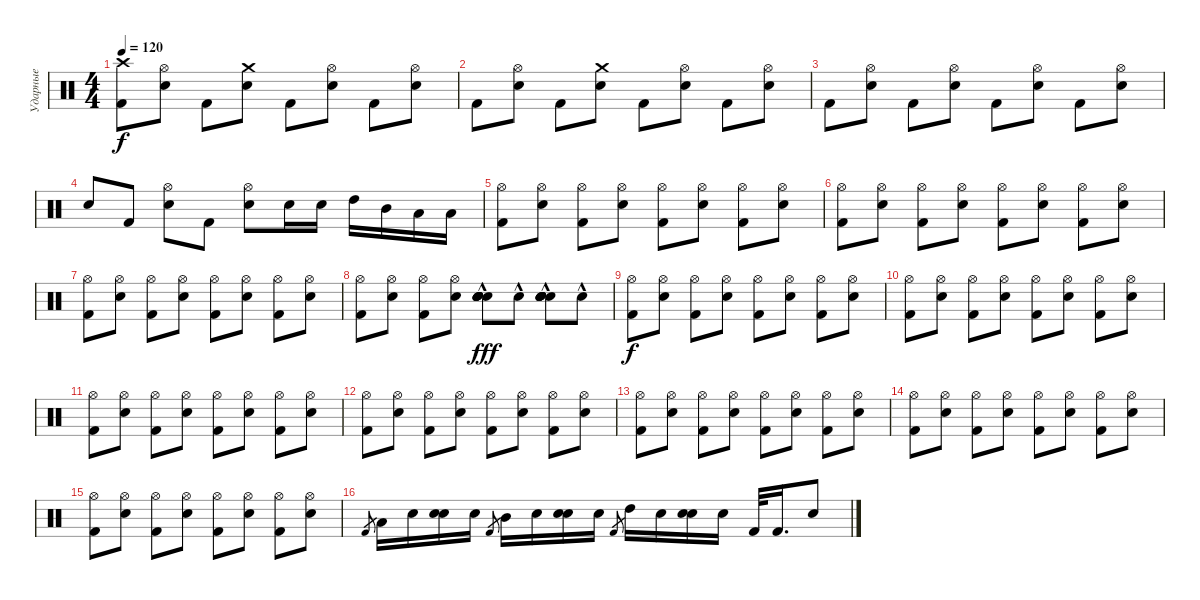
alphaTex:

\track ("Ударные" "Ударные") {instrument percussion}
\staff {score}
\articulation defaults
\ts (4 4)
\tempo 120
\clef neutral
\ks c
("Crash high (hit)" "Kick (hit) 2").8{dy f} ("Hi-Hat (open)" "Snare (hit) 2").8 "Kick (hit) 2".8 ("Crash medium (hit)" "Snare (hit) 2").8 "Kick (hit) 2".8 ("Hi-Hat (open)" "Snare (hit) 2").8 "Kick (hit) 2".8 ("Hi-Hat (open)" "Snare (hit) 2").8 |
"Kick (hit) 2".8 ("Hi-Hat (open)" "Snare (hit) 2").8 "Kick (hit) 2".8 ("Crash medium (hit)" "Snare (hit) 2").8 "Kick (hit) 2".8 ("Hi-Hat (open)" "Snare (hit) 2").8 "Kick (hit) 2".8 ("Hi-Hat (open)" "Snare (hit) 2").8 |
"Kick (hit) 2".8 ("Hi-Hat (open)" "Snare (hit) 2").8 "Kick (hit) 2".8 ("Hi-Hat (open)" "Snare (hit) 2").8 "Kick (hit) 2".8 ("Hi-Hat (open)" "Snare (hit) 2").8 "Kick (hit) 2".8 ("Hi-Hat (open)" "Snare (hit) 2").8 |
"Snare (hit) 2".8 "Kick (hit) 2".8 ("Hi-Hat (open)" "Snare (hit) 2").8 "Kick (hit) 2".8 ("Hi-Hat (open)" "Snare (hit) 2").8 "Snare (hit) 2".16 "Snare (hit) 2".16 "High Tom (hit)".16 "Mid Tom (hit)".16 "Low Tom (hit)".16 "Low Tom (hit)".16 |
("Hi-Hat (open)" "Kick (hit) 2").8 ("Hi-Hat (open)" "Snare (hit) 2").8 ("Hi-Hat (open)" "Kick (hit) 2").8 ("Hi-Hat (open)" "Snare (hit) 2").8 ("Hi-Hat (open)" "Kick (hit) 2").8 ("Hi-Hat (open)" "Snare (hit) 2").8 ("Hi-Hat (open)" "Kick (hit) 2").8 ("Hi-Hat (open)" "Snare (hit) 2").8 |
("Hi-Hat (open)" "Kick (hit) 2").8 ("Hi-Hat (open)" "Snare (hit) 2").8 ("Hi-Hat (open)" "Kick (hit) 2").8 ("Hi-Hat (open)" "Snare (hit) 2").8 ("Hi-Hat (open)" "Kick (hit) 2").8 ("Hi-Hat (open)" "Snare (hit) 2").8 ("Hi-Hat (open)" "Kick (hit) 2").8 ("Hi-Hat (open)" "Snare (hit) 2").8 |
("Hi-Hat (open)" "Kick (hit) 2").8 ("Hi-Hat (open)" "Snare (hit) 2").8 ("Hi-Hat (open)" "Kick (hit) 2").8 ("Hi-Hat (open)" "Snare (hit) 2").8 ("Hi-Hat (open)" "Kick (hit) 2").8 ("Hi-Hat (open)" "Snare (hit) 2").8 ("Hi-Hat (open)" "Kick (hit) 2").8 ("Hi-Hat (open)" "Snare (hit) 2").8 |
("Hi-Hat (open)" "Kick (hit) 2").8 ("Hi-Hat (open)" "Snare (hit) 2").8 ("Hi-Hat (open)" "Kick (hit) 2").8 ("Hi-Hat (open)" "Snare (hit) 2").8 ("Snare (hit) 2"{hac} "Snare (hit) 2"{hac} "Snare (hit) 2"{hac} "Snare (hit) 2"{hac} "Snare (hit) 2"{hac} "Snare (hit) 2"{hac}).8{dy fff} "Snare (hit)"{hac}.8 ("Snare (hit) 2"{hac} "Snare (hit) 2"{hac} "Snare (hit) 2"{hac} "Snare (hit) 2"{hac} "Snare (hit) 2"{hac} "Snare (hit) 2"{hac}).8 "Snare (hit)"{hac}.8 |
("Hi-Hat (open)" "Kick (hit) 2").8{dy f} ("Hi-Hat (open)" "Snare (hit) 2").8 ("Hi-Hat (open)" "Kick (hit) 2").8 ("Hi-Hat (open)" "Snare (hit) 2").8 ("Hi-Hat (open)" "Kick (hit) 2").8 ("Hi-Hat (open)" "Snare (hit) 2").8 ("Hi-Hat (open)" "Kick (hit) 2").8 ("Hi-Hat (open)" "Snare (hit) 2").8 |
("Hi-Hat (open)" "Kick (hit) 2").8 ("Hi-Hat (open)" "Snare (hit) 2").8 ("Hi-Hat (open)" "Kick (hit) 2").8 ("Hi-Hat (open)" "Snare (hit) 2").8 ("Hi-Hat (open)" "Kick (hit) 2").8 ("Hi-Hat (open)" "Snare (hit) 2").8 ("Hi-Hat (open)" "Kick (hit) 2").8 ("Hi-Hat (open)" "Snare (hit) 2").8 |
("Hi-Hat (open)" "Kick (hit) 2").8 ("Hi-Hat (open)" "Snare (hit) 2").8 ("Hi-Hat (open)" "Kick (hit) 2").8 ("Hi-Hat (open)" "Snare (hit) 2").8 ("Hi-Hat (open)" "Kick (hit) 2").8 ("Hi-Hat (open)" "Snare (hit) 2").8 ("Hi-Hat (open)" "Kick (hit) 2").8 ("Hi-Hat (open)" "Snare (hit) 2").8 |
("Hi-Hat (open)" "Kick (hit) 2").8 ("Hi-Hat (open)" "Snare (hit) 2").8 ("Hi-Hat (open)" "Kick (hit) 2").8 ("Hi-Hat (open)" "Snare (hit) 2").8 ("Hi-Hat (open)" "Kick (hit) 2").8 ("Hi-Hat (open)" "Snare (hit) 2").8 ("Hi-Hat (open)" "Kick (hit) 2").8 ("Hi-Hat (open)" "Snare (hit) 2").8 |
("Hi-Hat (open)" "Kick (hit) 2").8 ("Hi-Hat (open)" "Snare (hit) 2").8 ("Hi-Hat (open)" "Kick (hit) 2").8 ("Hi-Hat (open)" "Snare (hit) 2").8 ("Hi-Hat (open)" "Kick (hit) 2").8 ("Hi-Hat (open)" "Snare (hit) 2").8 ("Hi-Hat (open)" "Kick (hit) 2").8 ("Hi-Hat (open)" "Snare (hit) 2").8 |
("Hi-Hat (open)" "Kick (hit) 2").8 ("Hi-Hat (open)" "Snare (hit) 2").8 ("Hi-Hat (open)" "Kick (hit) 2").8 ("Hi-Hat (open)" "Snare (hit) 2").8 ("Hi-Hat (open)" "Kick (hit) 2").8 ("Hi-Hat (open)" "Snare (hit) 2").8 ("Hi-Hat (open)" "Kick (hit) 2").8 ("Hi-Hat (open)" "Snare (hit) 2").8 |
("Hi-Hat (open)" "Kick (hit) 2").8 ("Hi-Hat (open)" "Snare (hit) 2").8 ("Hi-Hat (open)" "Kick (hit) 2").8 ("Hi-Hat (open)" "Snare (hit) 2").8 ("Hi-Hat (open)" "Kick (hit) 2").8 ("Hi-Hat (open)" "Snare (hit) 2").8 ("Hi-Hat (open)" "Kick (hit) 2").8 ("Hi-Hat (open)" "Snare (hit) 2").8 |
"Kick (hit) 2".8{gr} "Low Tom (hit)".16 "Snare (hit)".16 ("Snare (hit) 2" "Snare (hit)").16 "Snare (hit)".16 "Kick (hit) 2".8{gr} "Mid Tom (hit)".16 "Snare (hit)".16 ("Snare (hit) 2" "Snare (hit)").16 "Snare (hit)".16 "Kick (hit) 2".8{gr} "High Tom (hit)".16 "Snare (hit)".16 ("Snare (hit) 2" "Snare (hit)").16 "Snare (hit)".16 "Kick (hit) 2".32 "Kick (hit) 2".16{d} "Snare (hit) 2".8
